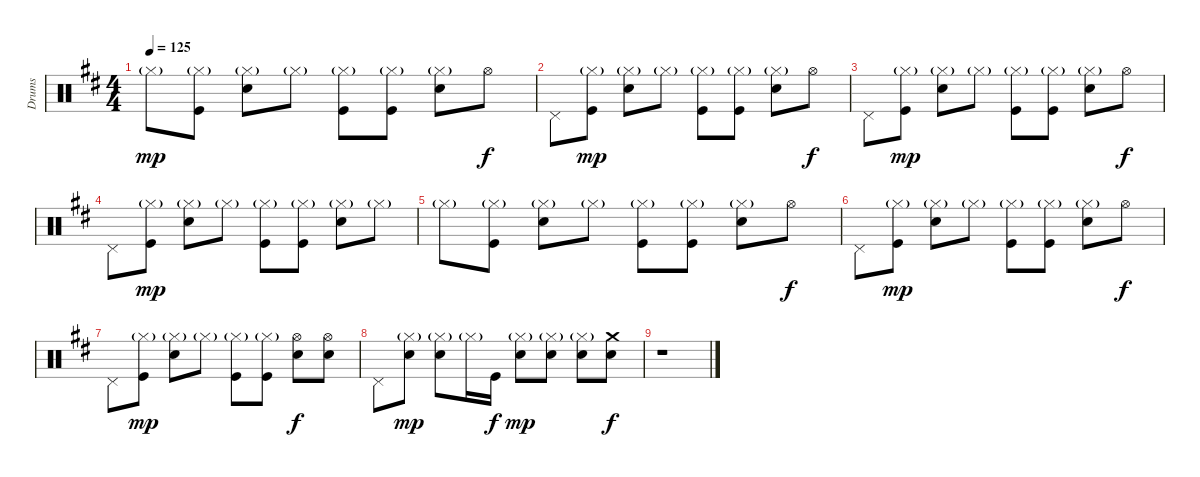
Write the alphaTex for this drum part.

\track ("Drums" "Drums") {instrument percussion}
\staff {score}
\articulation defaults
\ts (4 4)
\tempo 125
\clef neutral
\ks bminor "Hi-Hat (closed)"{g}.8{dy mp}
("Hi-Hat (closed)"{g} "Kick (hit)").8 ("Hi-Hat (closed)"{g} "Electric Snare (hit)").8 "Hi-Hat (closed)"{g}.8 ("Hi-Hat (closed)"{g} "Kick (hit)").8 ("Hi-Hat (closed)"{g} "Kick (hit)").8 ("Hi-Hat (closed)"{g} "Electric Snare (hit)").8 "Hi-Hat (open)".8{dy f} |
"Pedal Hi-Hat (hit)".8 ("Hi-Hat (closed)"{g} "Kick (hit)").8{dy mp} ("Hi-Hat (closed)"{g} "Electric Snare (hit)").8 "Hi-Hat (closed)"{g}.8 ("Hi-Hat (closed)"{g} "Kick (hit)").8 ("Hi-Hat (closed)"{g} "Kick (hit)").8 ("Hi-Hat (closed)"{g} "Electric Snare (hit)").8 "Hi-Hat (open)".8{dy f} |
"Pedal Hi-Hat (hit)".8 ("Hi-Hat (closed)"{g} "Kick (hit)").8{dy mp} ("Hi-Hat (closed)"{g} "Electric Snare (hit)").8 "Hi-Hat (closed)"{g}.8 ("Hi-Hat (closed)"{g} "Kick (hit)").8 ("Hi-Hat (closed)"{g} "Kick (hit)").8 ("Hi-Hat (closed)"{g} "Electric Snare (hit)").8 "Hi-Hat (open)".8{dy f} |
"Pedal Hi-Hat (hit)".8 ("Hi-Hat (closed)"{g} "Kick (hit)").8{dy mp} ("Hi-Hat (closed)"{g} "Electric Snare (hit)").8 "Hi-Hat (closed)"{g}.8 ("Hi-Hat (closed)"{g} "Kick (hit)").8 ("Hi-Hat (closed)"{g} "Kick (hit)").8 ("Hi-Hat (closed)"{g} "Electric Snare (hit)").8 "Hi-Hat (closed)"{g}.8 |
"Hi-Hat (closed)"{g}.8 ("Hi-Hat (closed)"{g} "Kick (hit)").8 ("Hi-Hat (closed)"{g} "Electric Snare (hit)").8 "Hi-Hat (closed)"{g}.8 ("Hi-Hat (closed)"{g} "Kick (hit)").8 ("Hi-Hat (closed)"{g} "Kick (hit)").8 ("Hi-Hat (closed)"{g} "Electric Snare (hit)").8 "Hi-Hat (open)".8{dy f} |
"Pedal Hi-Hat (hit)".8 ("Hi-Hat (closed)"{g} "Kick (hit)").8{dy mp} ("Hi-Hat (closed)"{g} "Electric Snare (hit)").8 "Hi-Hat (closed)"{g}.8 ("Hi-Hat (closed)"{g} "Kick (hit)").8 ("Hi-Hat (closed)"{g} "Kick (hit)").8 ("Hi-Hat (closed)"{g} "Electric Snare (hit)").8 "Hi-Hat (open)".8{dy f} |
"Pedal Hi-Hat (hit)".8 ("Hi-Hat (closed)"{g} "Kick (hit)").8{dy mp} ("Hi-Hat (closed)"{g} "Electric Snare (hit)").8 "Hi-Hat (closed)"{g}.8 ("Hi-Hat (closed)"{g} "Kick (hit)").8 ("Hi-Hat (closed)"{g} "Kick (hit)").8 ("Hi-Hat (open)" "Electric Snare (hit)").8{dy f} ("Hi-Hat (open)" "Electric Snare (hit)").8 |
"Pedal Hi-Hat (hit)".8 ("Hi-Hat (closed)"{g} "Electric Snare (hit)").8{dy mp} ("Hi-Hat (closed)"{g} "Electric Snare (hit)").8 "Hi-Hat (closed)"{g}.16 "Kick (hit)".16{dy f} ("Hi-Hat (closed)"{g} "Electric Snare (hit)").8{dy mp} ("Hi-Hat (closed)"{g} "Electric Snare (hit)").8 ("Hi-Hat (closed)"{g} "Electric Snare (hit)").8 ("Crash medium (hit)" "Electric Snare (hit)").8{dy f} |
r.1
